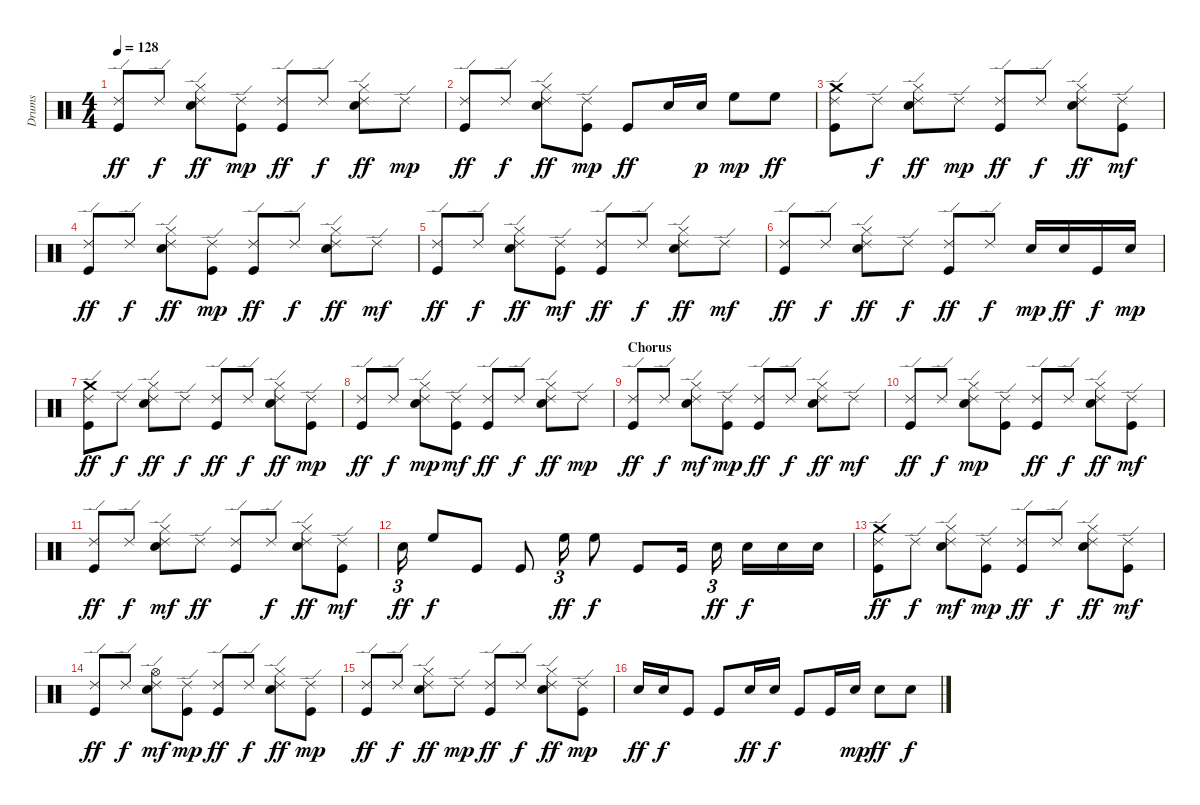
\track ("Drums" "Drums") {instrument percussion}
\staff {score}
\articulation defaults
\ts (4 4)
\tempo 128
\clef neutral
\ks c
("Ride (edge) 2" "Kick (hit)").8{dy ff} "Ride (edge) 2".8{dy f} ("Electric Snare (hit)" "Hi-Hat (closed)" "Ride (edge) 2").8{dy ff} ("Ride (edge) 2" "Kick (hit)").8{dy mp} ("Ride (edge) 2" "Kick (hit)").8{dy ff} "Ride (edge) 2".8{dy f} ("Electric Snare (hit)" "Hi-Hat (closed)" "Ride (edge) 2").8{dy ff} "Ride (edge) 2".8{dy mp} |
("Ride (edge) 2" "Kick (hit)").8{dy ff} "Ride (edge) 2".8{dy f} ("Electric Snare (hit)" "Hi-Hat (closed)" "Ride (edge) 2").8{dy ff} ("Ride (edge) 2" "Kick (hit)").8{dy mp} "Kick (hit)".8{dy ff} "Electric Snare (hit)".16 "Electric Snare (hit)".16{dy p} "High Floor Tom (hit)".8{dy mp} "High Floor Tom (hit)".8{dy ff} |
("Crash medium (hit)" "Ride (edge) 2" "Kick (hit)").8 "Ride (edge) 2".8{dy f} ("Electric Snare (hit)" "Hi-Hat (closed)" "Ride (edge) 2").8{dy ff} "Ride (edge) 2".8{dy mp} ("Ride (edge) 2" "Kick (hit)").8{dy ff} "Ride (edge) 2".8{dy f} ("Electric Snare (hit)" "Hi-Hat (closed)" "Ride (edge) 2").8{dy ff} ("Ride (edge) 2" "Kick (hit)").8{dy mf} |
("Ride (edge) 2" "Kick (hit)").8{dy ff} "Ride (edge) 2".8{dy f} ("Electric Snare (hit)" "Hi-Hat (closed)" "Ride (edge) 2").8{dy ff} ("Ride (edge) 2" "Kick (hit)").8{dy mp} ("Ride (edge) 2" "Kick (hit)").8{dy ff} "Ride (edge) 2".8{dy f} ("Electric Snare (hit)" "Hi-Hat (closed)" "Ride (edge) 2").8{dy ff} "Ride (edge) 2".8{dy mf} |
("Ride (edge) 2" "Kick (hit)").8{dy ff} "Ride (edge) 2".8{dy f} ("Electric Snare (hit)" "Hi-Hat (closed)" "Ride (edge) 2").8{dy ff} ("Ride (edge) 2" "Kick (hit)").8{dy mf} ("Ride (edge) 2" "Kick (hit)").8{dy ff} "Ride (edge) 2".8{dy f} ("Electric Snare (hit)" "Hi-Hat (closed)" "Ride (edge) 2").8{dy ff} "Ride (edge) 2".8{dy mf} |
("Ride (edge) 2" "Kick (hit)").8{dy ff} "Ride (edge) 2".8{dy f} ("Electric Snare (hit)" "Hi-Hat (closed)" "Ride (edge) 2").8{dy ff} "Ride (edge) 2".8{dy f} ("Ride (edge) 2" "Kick (hit)").8{dy ff} "Ride (edge) 2".8{dy f} "Electric Snare (hit)".16{dy mp} "Electric Snare (hit)".16{dy ff} "Kick (hit)".16{dy f} "Electric Snare (hit)".16{dy mp} |
("Crash medium (hit)" "Ride (edge) 2" "Kick (hit)").8{dy ff} "Ride (edge) 2".8{dy f} ("Electric Snare (hit)" "Hi-Hat (closed)" "Ride (edge) 2").8{dy ff} "Ride (edge) 2".8{dy f} ("Ride (edge) 2" "Kick (hit)").8{dy ff} "Ride (edge) 2".8{dy f} ("Electric Snare (hit)" "Hi-Hat (closed)" "Ride (edge) 2").8{dy ff} ("Ride (edge) 2" "Kick (hit)").8{dy mp} |
("Ride (edge) 2" "Kick (hit)").8{dy ff} "Ride (edge) 2".8{dy f} ("Electric Snare (hit)" "Hi-Hat (closed)" "Ride (edge) 2").8{dy mp} ("Ride (edge) 2" "Kick (hit)").8{dy mf} ("Ride (edge) 2" "Kick (hit)").8{dy ff} "Ride (edge) 2".8{dy f} ("Electric Snare (hit)" "Hi-Hat (closed)" "Ride (edge) 2").8{dy ff} "Ride (edge) 2".8{dy mp} |
\section ("" "Chorus")
("Ride (edge) 2" "Kick (hit)").8{dy ff} "Ride (edge) 2".8{dy f} ("Electric Snare (hit)" "Hi-Hat (closed)" "Ride (edge) 2").8{dy mf} ("Ride (edge) 2" "Kick (hit)").8{dy mp} ("Ride (edge) 2" "Kick (hit)").8{dy ff} "Ride (edge) 2".8{dy f} ("Electric Snare (hit)" "Hi-Hat (closed)" "Ride (edge) 2").8{dy ff} "Ride (edge) 2".8{dy mf} |
("Ride (edge) 2" "Kick (hit)").8{dy ff} "Ride (edge) 2".8{dy f} ("Electric Snare (hit)" "Hi-Hat (closed)" "Ride (edge) 2").8{dy mp} ("Ride (edge) 2" "Kick (hit)").8 ("Ride (edge) 2" "Kick (hit)").8{dy ff} "Ride (edge) 2".8{dy f} ("Electric Snare (hit)" "Hi-Hat (closed)" "Ride (edge) 2").8{dy ff} ("Ride (edge) 2" "Kick (hit)").8{dy mf} |
("Ride (edge) 2" "Kick (hit)").8{dy ff} "Ride (edge) 2".8{dy f} ("Electric Snare (hit)" "Hi-Hat (closed)" "Ride (edge) 2").8{dy mf} "Ride (edge) 2".8{dy ff} ("Ride (edge) 2" "Kick (hit)").8 "Ride (edge) 2".8{dy f} ("Electric Snare (hit)" "Hi-Hat (closed)" "Ride (edge) 2").8{dy ff} ("Ride (edge) 2" "Kick (hit)").8{dy mf} |
"Electric Snare (hit)".16{tu (3 2) dy ff} "High Floor Tom (hit)".8{dy f} "Kick (hit)".8 "Kick (hit)".8 "High Floor Tom (hit)".16{tu (3 2) dy ff} "High Floor Tom (hit)".8{dy f} "Kick (hit)".8 "Kick (hit)".16 "Electric Snare (hit)".16{tu (3 2) dy ff} "Electric Snare (hit)".16{dy f} "Electric Snare (hit)".16 "Electric Snare (hit)".16 |
("Crash medium (hit)" "Ride (edge) 2" "Kick (hit)").8{dy ff} "Ride (edge) 2".8{dy f} ("Electric Snare (hit)" "Hi-Hat (closed)" "Ride (edge) 2").8{dy mf} ("Ride (edge) 2" "Kick (hit)").8{dy mp} ("Ride (edge) 2" "Kick (hit)").8{dy ff} "Ride (edge) 2".8{dy f} ("Electric Snare (hit)" "Hi-Hat (closed)" "Ride (edge) 2").8{dy ff} ("Ride (edge) 2" "Kick (hit)").8{dy mf} |
("Ride (edge) 2" "Kick (hit)").8{dy ff} "Ride (edge) 2".8{dy f} ("Electric Snare (hit)" "Hi-Hat (open)" "Ride (edge) 2").8{dy mf} ("Ride (edge) 2" "Kick (hit)").8{dy mp} ("Ride (edge) 2" "Kick (hit)").8{dy ff} "Ride (edge) 2".8{dy f} ("Electric Snare (hit)" "Hi-Hat (closed)" "Ride (edge) 2").8{dy ff} ("Ride (edge) 2" "Kick (hit)").8{dy mp} |
("Ride (edge) 2" "Kick (hit)").8{dy ff} "Ride (edge) 2".8{dy f} ("Electric Snare (hit)" "Hi-Hat (closed)" "Ride (edge) 2").8{dy ff} "Ride (edge) 2".8{dy mp} ("Ride (edge) 2" "Kick (hit)").8{dy ff} "Ride (edge) 2".8{dy f} ("Electric Snare (hit)" "Hi-Hat (closed)" "Ride (edge) 2").8{dy ff} ("Ride (edge) 2" "Kick (hit)").8{dy mp} |
"Electric Snare (hit)".16{dy ff} "Electric Snare (hit)".16{dy f} "Kick (hit)".8 "Kick (hit)".8 "Electric Snare (hit)".16{dy ff} "Electric Snare (hit)".16{dy f} "Kick (hit)".8 "Kick (hit)".16 "Electric Snare (hit)".16{dy mp} "Electric Snare (hit)".8{dy ff} "Electric Snare (hit)".8{dy f}
